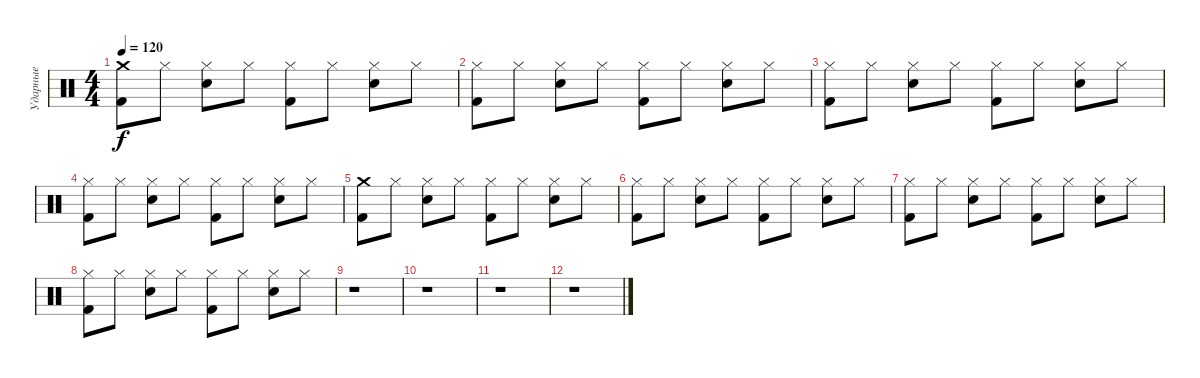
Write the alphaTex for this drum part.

\track ("Ударные" "Ударные") {instrument percussion}
\staff {score}
\articulation defaults
\ts (4 4)
\tempo 120
\clef neutral
\ks c
("Crash medium (hit)" "Kick (hit) 2").8{dy f} "Hi-Hat (closed)".8 ("Hi-Hat (closed)" "Electric Snare (hit)").8 "Hi-Hat (closed)".8 ("Hi-Hat (closed)" "Kick (hit) 2").8 "Hi-Hat (closed)".8 ("Hi-Hat (closed)" "Electric Snare (hit)").8 "Hi-Hat (closed)".8 |
("Hi-Hat (closed)" "Kick (hit) 2").8 "Hi-Hat (closed)".8 ("Hi-Hat (closed)" "Electric Snare (hit)").8 "Hi-Hat (closed)".8 ("Hi-Hat (closed)" "Kick (hit) 2").8 "Hi-Hat (closed)".8 ("Hi-Hat (closed)" "Electric Snare (hit)").8 "Hi-Hat (closed)".8 |
("Hi-Hat (closed)" "Kick (hit) 2").8 "Hi-Hat (closed)".8 ("Hi-Hat (closed)" "Electric Snare (hit)").8 "Hi-Hat (closed)".8 ("Hi-Hat (closed)" "Kick (hit) 2").8 "Hi-Hat (closed)".8 ("Hi-Hat (closed)" "Electric Snare (hit)").8 "Hi-Hat (closed)".8 |
("Hi-Hat (closed)" "Kick (hit) 2").8 "Hi-Hat (closed)".8 ("Hi-Hat (closed)" "Electric Snare (hit)").8 "Hi-Hat (closed)".8 ("Hi-Hat (closed)" "Kick (hit) 2").8 "Hi-Hat (closed)".8 ("Hi-Hat (closed)" "Electric Snare (hit)").8 "Hi-Hat (closed)".8 |
("Crash medium (hit)" "Kick (hit) 2").8 "Hi-Hat (closed)".8 ("Hi-Hat (closed)" "Electric Snare (hit)").8 "Hi-Hat (closed)".8 ("Hi-Hat (closed)" "Kick (hit) 2").8 "Hi-Hat (closed)".8 ("Hi-Hat (closed)" "Electric Snare (hit)").8 "Hi-Hat (closed)".8 |
("Hi-Hat (closed)" "Kick (hit) 2").8 "Hi-Hat (closed)".8 ("Hi-Hat (closed)" "Electric Snare (hit)").8 "Hi-Hat (closed)".8 ("Hi-Hat (closed)" "Kick (hit) 2").8 "Hi-Hat (closed)".8 ("Hi-Hat (closed)" "Electric Snare (hit)").8 "Hi-Hat (closed)".8 |
("Hi-Hat (closed)" "Kick (hit) 2").8 "Hi-Hat (closed)".8 ("Hi-Hat (closed)" "Electric Snare (hit)").8 "Hi-Hat (closed)".8 ("Hi-Hat (closed)" "Kick (hit) 2").8 "Hi-Hat (closed)".8 ("Hi-Hat (closed)" "Electric Snare (hit)").8 "Hi-Hat (closed)".8 |
("Hi-Hat (closed)" "Kick (hit) 2").8 "Hi-Hat (closed)".8 ("Hi-Hat (closed)" "Electric Snare (hit)").8 "Hi-Hat (closed)".8 ("Hi-Hat (closed)" "Kick (hit) 2").8 "Hi-Hat (closed)".8 ("Hi-Hat (closed)" "Electric Snare (hit)").8 "Hi-Hat (closed)".8 |
r.1 |
r.1 |
r.1 |
r.1
